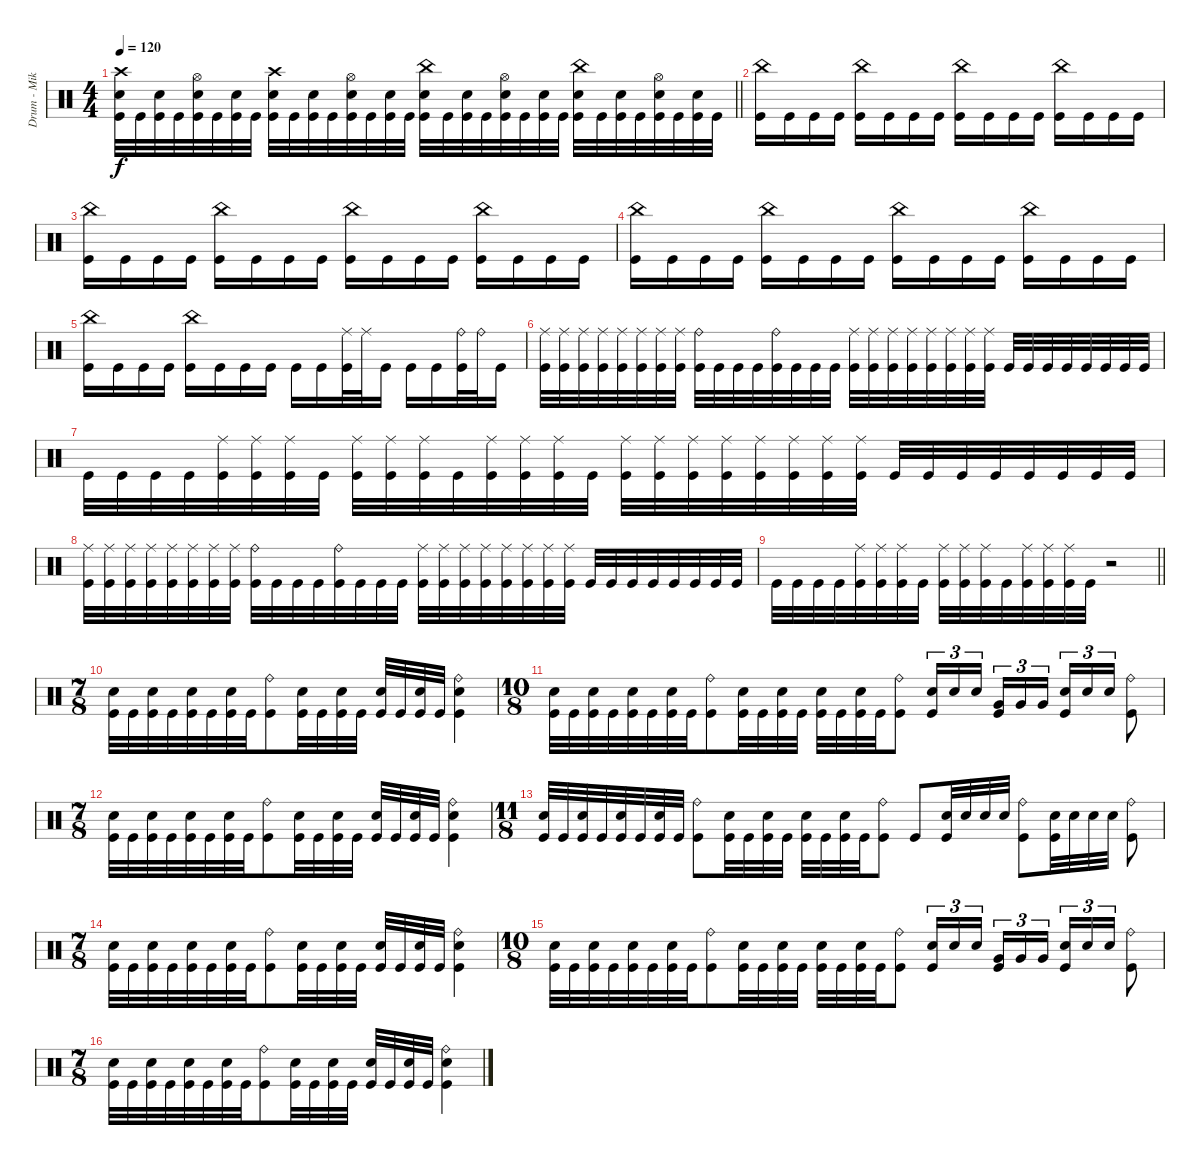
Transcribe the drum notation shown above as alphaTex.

\track ("Drum - Mike Collins" "Drum - Mik") {instrument percussion}
\staff {score}
\articulation defaults
\ts (4 4)
\tempo 120
\clef neutral
\barLineRight lightlight
\ks c
("Crash high (hit)" "Electric Snare (hit)" "Kick (hit)").32{dy f} "Kick (hit)".32 ("Electric Snare (hit)" "Kick (hit)").32 "Kick (hit)".32 ("Hi-Hat (open)" "Electric Snare (hit)" "Kick (hit)").32 "Kick (hit)".32 ("Electric Snare (hit)" "Kick (hit)").32 "Kick (hit)".32 ("Crash high (hit)" "Electric Snare (hit)" "Kick (hit)").32 "Kick (hit)".32 ("Electric Snare (hit)" "Kick (hit)").32 "Kick (hit)".32 ("Hi-Hat (open)" "Electric Snare (hit)" "Kick (hit)").32 "Kick (hit)".32 ("Electric Snare (hit)" "Kick (hit)").32 "Kick (hit)".32 ("China (hit)" "Electric Snare (hit)" "Kick (hit)").32 "Kick (hit)".32 ("Electric Snare (hit)" "Kick (hit)").32 "Kick (hit)".32 ("Hi-Hat (open)" "Electric Snare (hit)" "Kick (hit)").32 "Kick (hit)".32 ("Electric Snare (hit)" "Kick (hit)").32 "Kick (hit)".32 ("China (hit)" "Electric Snare (hit)" "Kick (hit)").32 "Kick (hit)".32 ("Electric Snare (hit)" "Kick (hit)").32 "Kick (hit)".32 ("Hi-Hat (open)" "Electric Snare (hit)" "Kick (hit)").32 "Kick (hit)".32 ("Electric Snare (hit)" "Kick (hit)").32 "Kick (hit)".32 |
("China (hit)" "Kick (hit)").16 "Kick (hit)".16 "Kick (hit)".16 "Kick (hit)".16 ("China (hit)" "Kick (hit)").16 "Kick (hit)".16 "Kick (hit)".16 "Kick (hit)".16 ("China (hit)" "Kick (hit)").16 "Kick (hit)".16 "Kick (hit)".16 "Kick (hit)".16 ("China (hit)" "Kick (hit)").16 "Kick (hit)".16 "Kick (hit)".16 "Kick (hit)".16 |
("China (hit)" "Kick (hit)").16 "Kick (hit)".16 "Kick (hit)".16 "Kick (hit)".16 ("China (hit)" "Kick (hit)").16 "Kick (hit)".16 "Kick (hit)".16 "Kick (hit)".16 ("China (hit)" "Kick (hit)").16 "Kick (hit)".16 "Kick (hit)".16 "Kick (hit)".16 ("China (hit)" "Kick (hit)").16 "Kick (hit)".16 "Kick (hit)".16 "Kick (hit)".16 |
("China (hit)" "Kick (hit)").16 "Kick (hit)".16 "Kick (hit)".16 "Kick (hit)".16 ("China (hit)" "Kick (hit)").16 "Kick (hit)".16 "Kick (hit)".16 "Kick (hit)".16 ("China (hit)" "Kick (hit)").16 "Kick (hit)".16 "Kick (hit)".16 "Kick (hit)".16 ("China (hit)" "Kick (hit)").16 "Kick (hit)".16 "Kick (hit)".16 "Kick (hit)".16 |
("China (hit)" "Kick (hit)").16 "Kick (hit)".16 "Kick (hit)".16 "Kick (hit)".16 ("China (hit)" "Kick (hit)").16 "Kick (hit)".16 "Kick (hit)".16 "Kick (hit)".16 "Kick (hit)".16 "Kick (hit)".16 ("Ride (middle)" "Kick (hit)").32 "Ride (middle)".32 "Kick (hit)".16 "Kick (hit)".16 "Kick (hit)".16 ("Ride (bell)" "Kick (hit)").32 "Ride (bell)".32 "Kick (hit)".16 |
("Ride (middle)" "Kick (hit)").32 ("Ride (middle)" "Kick (hit)").32 ("Ride (middle)" "Kick (hit)").32 ("Ride (middle)" "Kick (hit)").32 ("Ride (middle)" "Kick (hit)").32 ("Ride (middle)" "Kick (hit)").32 ("Ride (middle)" "Kick (hit)").32 ("Ride (middle)" "Kick (hit)").32 ("Ride (bell)" "Kick (hit)").32 "Kick (hit)".32 "Kick (hit)".32 "Kick (hit)".32 ("Ride (bell)" "Kick (hit)").32 "Kick (hit)".32 "Kick (hit)".32 "Kick (hit)".32 ("Ride (middle)" "Kick (hit)").32 ("Ride (middle)" "Kick (hit)").32 ("Ride (middle)" "Kick (hit)").32 ("Ride (middle)" "Kick (hit)").32 ("Ride (middle)" "Kick (hit)").32 ("Ride (middle)" "Kick (hit)").32 ("Ride (middle)" "Kick (hit)").32 ("Ride (middle)" "Kick (hit)").32 "Kick (hit)".32 "Kick (hit)".32 "Kick (hit)".32 "Kick (hit)".32 "Kick (hit)".32 "Kick (hit)".32 "Kick (hit)".32 "Kick (hit)".32 |
"Kick (hit)".32 "Kick (hit)".32 "Kick (hit)".32 "Kick (hit)".32 ("Ride (middle)" "Kick (hit)").32 ("Ride (middle)" "Kick (hit)").32 ("Ride (middle)" "Kick (hit)").32 "Kick (hit)".32 ("Ride (middle)" "Kick (hit)").32 ("Ride (middle)" "Kick (hit)").32 ("Ride (middle)" "Kick (hit)").32 "Kick (hit)".32 ("Ride (middle)" "Kick (hit)").32 ("Ride (middle)" "Kick (hit)").32 ("Ride (middle)" "Kick (hit)").32 "Kick (hit)".32 ("Ride (middle)" "Kick (hit)").32 ("Ride (middle)" "Kick (hit)").32 ("Ride (middle)" "Kick (hit)").32 ("Ride (middle)" "Kick (hit)").32 ("Ride (middle)" "Kick (hit)").32 ("Ride (middle)" "Kick (hit)").32 ("Ride (middle)" "Kick (hit)").32 ("Ride (middle)" "Kick (hit)").32 "Kick (hit)".32 "Kick (hit)".32 "Kick (hit)".32 "Kick (hit)".32 "Kick (hit)".32 "Kick (hit)".32 "Kick (hit)".32 "Kick (hit)".32 |
("Ride (middle)" "Kick (hit)").32 ("Ride (middle)" "Kick (hit)").32 ("Ride (middle)" "Kick (hit)").32 ("Ride (middle)" "Kick (hit)").32 ("Ride (middle)" "Kick (hit)").32 ("Ride (middle)" "Kick (hit)").32 ("Ride (middle)" "Kick (hit)").32 ("Ride (middle)" "Kick (hit)").32 ("Ride (bell)" "Kick (hit)").32 "Kick (hit)".32 "Kick (hit)".32 "Kick (hit)".32 ("Ride (bell)" "Kick (hit)").32 "Kick (hit)".32 "Kick (hit)".32 "Kick (hit)".32 ("Ride (middle)" "Kick (hit)").32 ("Ride (middle)" "Kick (hit)").32 ("Ride (middle)" "Kick (hit)").32 ("Ride (middle)" "Kick (hit)").32 ("Ride (middle)" "Kick (hit)").32 ("Ride (middle)" "Kick (hit)").32 ("Ride (middle)" "Kick (hit)").32 ("Ride (middle)" "Kick (hit)").32 "Kick (hit)".32 "Kick (hit)".32 "Kick (hit)".32 "Kick (hit)".32 "Kick (hit)".32 "Kick (hit)".32 "Kick (hit)".32 "Kick (hit)".32 |
\barLineRight lightlight "Kick (hit)".32 "Kick (hit)".32 "Kick (hit)".32 "Kick (hit)".32
("Ride (middle)" "Kick (hit)").32 ("Ride (middle)" "Kick (hit)").32 ("Ride (middle)" "Kick (hit)").32 "Kick (hit)".32 ("Ride (middle)" "Kick (hit)").32 ("Ride (middle)" "Kick (hit)").32 ("Ride (middle)" "Kick (hit)").32 "Kick (hit)".32 ("Ride (middle)" "Kick (hit)").32 ("Ride (middle)" "Kick (hit)").32 ("Ride (middle)" "Kick (hit)").32 "Kick (hit)".32 r.2 |
\ts (7 8)
("Electric Snare (hit)" "Kick (hit)").32 "Kick (hit)".32 ("Electric Snare (hit)" "Kick (hit)").32 "Kick (hit)".32 ("Electric Snare (hit)" "Kick (hit)").32 "Kick (hit)".32 ("Electric Snare (hit)" "Kick (hit)").32 "Kick (hit)".32 ("Ride (bell)" "Kick (hit)").8 ("Electric Snare (hit)" "Kick (hit)").32 "Kick (hit)".32 ("Electric Snare (hit)" "Kick (hit)").32 "Kick (hit)".32 ("Electric Snare (hit)" "Kick (hit)").32 "Kick (hit)".32 ("Electric Snare (hit)" "Kick (hit)").32 "Kick (hit)".32 ("Ride (bell)" "Electric Snare (hit)" "Kick (hit)").4 |
\ts (10 8)
("Electric Snare (hit)" "Kick (hit)").32 "Kick (hit)".32 ("Electric Snare (hit)" "Kick (hit)").32 "Kick (hit)".32 ("Electric Snare (hit)" "Kick (hit)").32 "Kick (hit)".32 ("Electric Snare (hit)" "Kick (hit)").32 "Kick (hit)".32 ("Ride (bell)" "Kick (hit)").8 ("Electric Snare (hit)" "Kick (hit)").32 "Kick (hit)".32 ("Electric Snare (hit)" "Kick (hit)").32 "Kick (hit)".32 ("Electric Snare (hit)" "Kick (hit)").32 "Kick (hit)".32 ("Electric Snare (hit)" "Kick (hit)").32 "Kick (hit)".32 ("Ride (bell)" "Kick (hit)").8 ("Electric Snare (hit)" "Kick (hit)").16{tu (3 2)} "Electric Snare (hit)".16{tu (3 2)} "Electric Snare (hit)".16{tu (3 2)} ("Very Low Tom (hit)" "Kick (hit)").16{tu (3 2)} "Very Low Tom (hit)".16{tu (3 2)} "Very Low Tom (hit)".16{tu (3 2)} ("Electric Snare (hit)" "Kick (hit)").16{tu (3 2)} "Electric Snare (hit)".16{tu (3 2)} "Electric Snare (hit)".16{tu (3 2)} ("Ride (bell)" "Kick (hit)").8 |
\ts (7 8)
("Electric Snare (hit)" "Kick (hit)").32 "Kick (hit)".32 ("Electric Snare (hit)" "Kick (hit)").32 "Kick (hit)".32 ("Electric Snare (hit)" "Kick (hit)").32 "Kick (hit)".32 ("Electric Snare (hit)" "Kick (hit)").32 "Kick (hit)".32 ("Ride (bell)" "Kick (hit)").8 ("Electric Snare (hit)" "Kick (hit)").32 "Kick (hit)".32 ("Electric Snare (hit)" "Kick (hit)").32 "Kick (hit)".32 ("Electric Snare (hit)" "Kick (hit)").32 "Kick (hit)".32 ("Electric Snare (hit)" "Kick (hit)").32 "Kick (hit)".32 ("Ride (bell)" "Electric Snare (hit)" "Kick (hit)").4 |
\ts (11 8)
("Electric Snare (hit)" "Kick (hit)").32 "Kick (hit)".32 ("Electric Snare (hit)" "Kick (hit)").32 "Kick (hit)".32 ("Electric Snare (hit)" "Kick (hit)").32 "Kick (hit)".32 ("Electric Snare (hit)" "Kick (hit)").32 "Kick (hit)".32 ("Ride (bell)" "Kick (hit)").8 ("Electric Snare (hit)" "Kick (hit)").32 "Kick (hit)".32 ("Electric Snare (hit)" "Kick (hit)").32 "Kick (hit)".32 ("Electric Snare (hit)" "Kick (hit)").32 "Kick (hit)".32 ("Electric Snare (hit)" "Kick (hit)").32 "Kick (hit)".32 ("Ride (bell)" "Kick (hit)").8 "Kick (hit)".8 ("Electric Snare (hit)" "Kick (hit)").32 "Electric Snare (hit)".32 "Electric Snare (hit)".32 "Electric Snare (hit)".32 ("Ride (bell)" "Kick (hit)").8 ("Electric Snare (hit)" "Kick (hit)").32 "Electric Snare (hit)".32 "Electric Snare (hit)".32 "Electric Snare (hit)".32 ("Ride (bell)" "Kick (hit)").8 |
\ts (7 8)
("Electric Snare (hit)" "Kick (hit)").32 "Kick (hit)".32 ("Electric Snare (hit)" "Kick (hit)").32 "Kick (hit)".32 ("Electric Snare (hit)" "Kick (hit)").32 "Kick (hit)".32 ("Electric Snare (hit)" "Kick (hit)").32 "Kick (hit)".32 ("Ride (bell)" "Kick (hit)").8 ("Electric Snare (hit)" "Kick (hit)").32 "Kick (hit)".32 ("Electric Snare (hit)" "Kick (hit)").32 "Kick (hit)".32 ("Electric Snare (hit)" "Kick (hit)").32 "Kick (hit)".32 ("Electric Snare (hit)" "Kick (hit)").32 "Kick (hit)".32 ("Ride (bell)" "Electric Snare (hit)" "Kick (hit)").4 |
\ts (10 8)
("Electric Snare (hit)" "Kick (hit)").32 "Kick (hit)".32 ("Electric Snare (hit)" "Kick (hit)").32 "Kick (hit)".32 ("Electric Snare (hit)" "Kick (hit)").32 "Kick (hit)".32 ("Electric Snare (hit)" "Kick (hit)").32 "Kick (hit)".32 ("Ride (bell)" "Kick (hit)").8 ("Electric Snare (hit)" "Kick (hit)").32 "Kick (hit)".32 ("Electric Snare (hit)" "Kick (hit)").32 "Kick (hit)".32 ("Electric Snare (hit)" "Kick (hit)").32 "Kick (hit)".32 ("Electric Snare (hit)" "Kick (hit)").32 "Kick (hit)".32 ("Ride (bell)" "Kick (hit)").8 ("Electric Snare (hit)" "Kick (hit)").16{tu (3 2)} "Electric Snare (hit)".16{tu (3 2)} "Electric Snare (hit)".16{tu (3 2)} ("Very Low Tom (hit)" "Kick (hit)").16{tu (3 2)} "Very Low Tom (hit)".16{tu (3 2)} "Very Low Tom (hit)".16{tu (3 2)} ("Electric Snare (hit)" "Kick (hit)").16{tu (3 2)} "Electric Snare (hit)".16{tu (3 2)} "Electric Snare (hit)".16{tu (3 2)} ("Ride (bell)" "Kick (hit)").8 |
\ts (7 8)
("Electric Snare (hit)" "Kick (hit)").32 "Kick (hit)".32 ("Electric Snare (hit)" "Kick (hit)").32 "Kick (hit)".32 ("Electric Snare (hit)" "Kick (hit)").32 "Kick (hit)".32 ("Electric Snare (hit)" "Kick (hit)").32 "Kick (hit)".32 ("Ride (bell)" "Kick (hit)").8 ("Electric Snare (hit)" "Kick (hit)").32 "Kick (hit)".32 ("Electric Snare (hit)" "Kick (hit)").32 "Kick (hit)".32 ("Electric Snare (hit)" "Kick (hit)").32 "Kick (hit)".32 ("Electric Snare (hit)" "Kick (hit)").32 "Kick (hit)".32 ("Ride (bell)" "Electric Snare (hit)" "Kick (hit)").4
